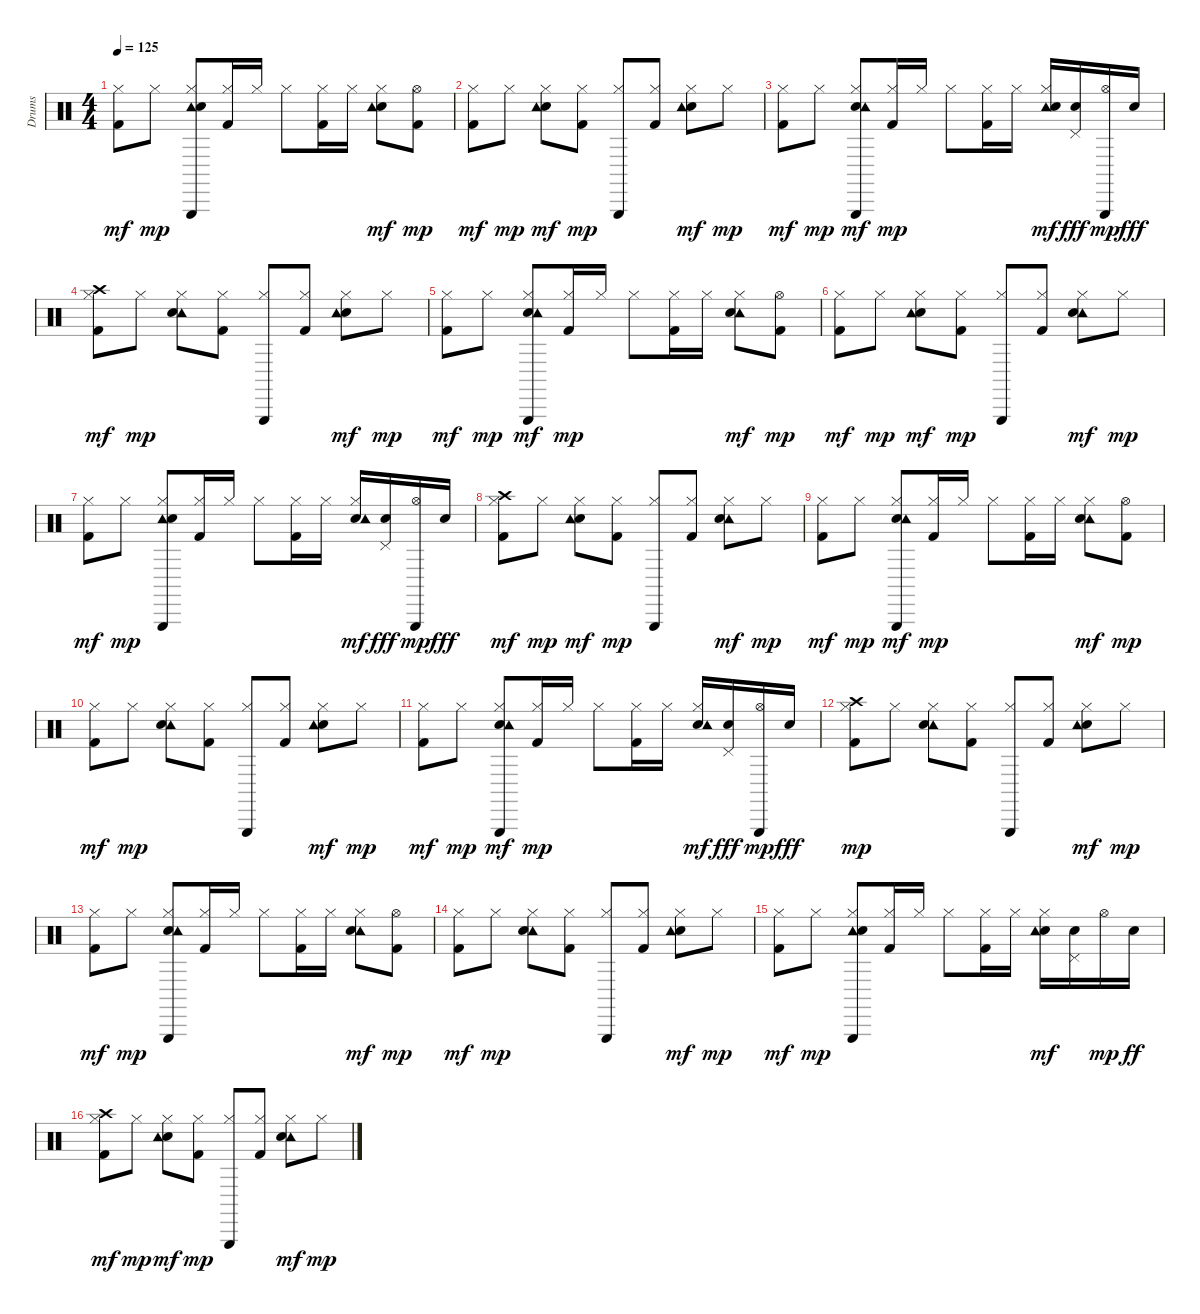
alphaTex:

\track ("Drums" "Drums") {instrument percussion}
\staff {score}
\articulation defaults
\ts (4 4)
\tempo 125
\clef neutral
\ks c
("Hi-Hat (closed)" "Kick (hit) 2").8{dy mf} "Hi-Hat (closed)".8{dy mp} ("Tambourine (hit)" "Electric Snare (hit)" "Hi-Hat (closed)" "Triangle (hit)").8 ("Hi-Hat (closed)" "Kick (hit) 2").16 "Hi-Hat (closed)".16 "Hi-Hat (closed)".8 ("Kick (hit) 2" "Hi-Hat (closed)").16 "Hi-Hat (closed)".16 ("Hi-Hat (closed)" "Electric Snare (hit)" "Tambourine (hit)").8{dy mf} ("Kick (hit) 2" "Hi-Hat (open)").8{dy mp} |
("Kick (hit) 2" "Hi-Hat (closed)").8{dy mf} "Hi-Hat (closed)".8{dy mp} ("Hi-Hat (closed)" "Electric Snare (hit)" "Tambourine (hit)").8{dy mf} ("Kick (hit) 2" "Hi-Hat (closed)").8{dy mp} ("Triangle (hit)" "Hi-Hat (closed)").8 ("Kick (hit) 2" "Hi-Hat (closed)").8 ("Hi-Hat (closed)" "Electric Snare (hit)" "Tambourine (hit)").8{dy mf} "Hi-Hat (closed)".8{dy mp} |
("Kick (hit) 2" "Hi-Hat (closed)").8{dy mf} "Hi-Hat (closed)".8{dy mp} ("Triangle (hit)" "Hi-Hat (closed)" "Electric Snare (hit)" "Tambourine (hit)").8{dy mf} ("Kick (hit) 2" "Hi-Hat (closed)").16{dy mp} "Hi-Hat (closed)".16 "Hi-Hat (closed)".8 ("Hi-Hat (closed)" "Kick (hit) 2").16 "Hi-Hat (closed)".16 ("Tambourine (hit)" "Electric Snare (hit)" "Hi-Hat (closed)").16{dy mf} ("Pedal Hi-Hat (hit)" "Electric Snare (hit)").16{dy fff} ("Triangle (hit)" "Hi-Hat (open)").16{dy mp} "Electric Snare (hit)".16{dy fff} |
("Crash high (hit)" "Kick (hit) 2" "Hi-Hat (closed)").8{dy mf} "Hi-Hat (closed)".8{dy mp} ("Tambourine (hit)" "Electric Snare (hit)" "Hi-Hat (closed)").8 ("Kick (hit) 2" "Hi-Hat (closed)").8 ("Hi-Hat (closed)" "Triangle (hit)").8 ("Hi-Hat (closed)" "Kick (hit) 2").8 ("Hi-Hat (closed)" "Electric Snare (hit)" "Tambourine (hit)").8{dy mf} "Hi-Hat (closed)".8{dy mp} |
("Hi-Hat (closed)" "Kick (hit) 2").8{dy mf} "Hi-Hat (closed)".8{dy mp} ("Triangle (hit)" "Hi-Hat (closed)" "Electric Snare (hit)" "Tambourine (hit)").8{dy mf} ("Hi-Hat (closed)" "Kick (hit) 2").16{dy mp} "Hi-Hat (closed)".16 "Hi-Hat (closed)".8 ("Hi-Hat (closed)" "Kick (hit) 2").16 "Hi-Hat (closed)".16 ("Tambourine (hit)" "Electric Snare (hit)" "Hi-Hat (closed)").8{dy mf} ("Kick (hit) 2" "Hi-Hat (open)").8{dy mp} |
("Hi-Hat (closed)" "Kick (hit) 2").8{dy mf} "Hi-Hat (closed)".8{dy mp} ("Hi-Hat (closed)" "Electric Snare (hit)" "Tambourine (hit)").8{dy mf} ("Hi-Hat (closed)" "Kick (hit) 2").8{dy mp} ("Hi-Hat (closed)" "Triangle (hit)").8 ("Hi-Hat (closed)" "Kick (hit) 2").8 ("Tambourine (hit)" "Electric Snare (hit)" "Hi-Hat (closed)").8{dy mf} "Hi-Hat (closed)".8{dy mp} |
("Hi-Hat (closed)" "Kick (hit) 2").8{dy mf} "Hi-Hat (closed)".8{dy mp} ("Tambourine (hit)" "Electric Snare (hit)" "Hi-Hat (closed)" "Triangle (hit)").8 ("Hi-Hat (closed)" "Kick (hit) 2").16 "Hi-Hat (closed)".16 "Hi-Hat (closed)".8 ("Kick (hit) 2" "Hi-Hat (closed)").16 "Hi-Hat (closed)".16 ("Hi-Hat (closed)" "Electric Snare (hit)" "Tambourine (hit)").16{dy mf} ("Electric Snare (hit)" "Pedal Hi-Hat (hit)").16{dy fff} ("Hi-Hat (open)" "Triangle (hit)").16{dy mp} "Electric Snare (hit)".16{dy fff} |
("Crash high (hit)" "Kick (hit) 2" "Hi-Hat (closed)").8{dy mf} "Hi-Hat (closed)".8{dy mp} ("Hi-Hat (closed)" "Electric Snare (hit)" "Tambourine (hit)").8{dy mf} ("Kick (hit) 2" "Hi-Hat (closed)").8{dy mp} ("Triangle (hit)" "Hi-Hat (closed)").8 ("Kick (hit) 2" "Hi-Hat (closed)").8 ("Tambourine (hit)" "Electric Snare (hit)" "Hi-Hat (closed)").8{dy mf} "Hi-Hat (closed)".8{dy mp} |
("Kick (hit) 2" "Hi-Hat (closed)").8{dy mf} "Hi-Hat (closed)".8{dy mp} ("Triangle (hit)" "Hi-Hat (closed)" "Electric Snare (hit)" "Tambourine (hit)").8{dy mf} ("Kick (hit) 2" "Hi-Hat (closed)").16{dy mp} "Hi-Hat (closed)".16 "Hi-Hat (closed)".8 ("Kick (hit) 2" "Hi-Hat (closed)").16 "Hi-Hat (closed)".16 ("Tambourine (hit)" "Electric Snare (hit)" "Hi-Hat (closed)").8{dy mf} ("Hi-Hat (open)" "Kick (hit) 2").8{dy mp} |
("Kick (hit) 2" "Hi-Hat (closed)").8{dy mf} "Hi-Hat (closed)".8{dy mp} ("Tambourine (hit)" "Electric Snare (hit)" "Hi-Hat (closed)").8 ("Kick (hit) 2" "Hi-Hat (closed)").8 ("Triangle (hit)" "Hi-Hat (closed)").8 ("Hi-Hat (closed)" "Kick (hit) 2").8 ("Hi-Hat (closed)" "Electric Snare (hit)" "Tambourine (hit)").8{dy mf} "Hi-Hat (closed)".8{dy mp} |
("Hi-Hat (closed)" "Kick (hit) 2").8{dy mf} "Hi-Hat (closed)".8{dy mp} ("Triangle (hit)" "Hi-Hat (closed)" "Electric Snare (hit)" "Tambourine (hit)").8{dy mf} ("Hi-Hat (closed)" "Kick (hit) 2").16{dy mp} "Hi-Hat (closed)".16 "Hi-Hat (closed)".8 ("Hi-Hat (closed)" "Kick (hit) 2").16 "Hi-Hat (closed)".16 ("Hi-Hat (closed)" "Electric Snare (hit)" "Tambourine (hit)").16{dy mf} ("Pedal Hi-Hat (hit)" "Electric Snare (hit)").16{dy fff} ("Hi-Hat (open)" "Triangle (hit)").16{dy mp} "Electric Snare (hit)".16{dy fff} |
("Kick (hit) 2" "Hi-Hat (closed)" "Crash high (hit)").8{dy mp} "Hi-Hat (closed)".8 ("Tambourine (hit)" "Electric Snare (hit)" "Hi-Hat (closed)").8 ("Kick (hit) 2" "Hi-Hat (closed)").8 ("Hi-Hat (closed)" "Triangle (hit)").8 ("Kick (hit) 2" "Hi-Hat (closed)").8 ("Hi-Hat (closed)" "Electric Snare (hit)" "Tambourine (hit)").8{dy mf} "Hi-Hat (closed)".8{dy mp} |
("Kick (hit) 2" "Hi-Hat (closed)").8{dy mf} "Hi-Hat (closed)".8{dy mp} ("Hi-Hat (closed)" "Electric Snare (hit)" "Tambourine (hit)" "Triangle (hit)").8 ("Kick (hit) 2" "Hi-Hat (closed)").16 "Hi-Hat (closed)".16 "Hi-Hat (closed)".8 ("Hi-Hat (closed)" "Kick (hit) 2").16 "Hi-Hat (closed)".16 ("Tambourine (hit)" "Electric Snare (hit)" "Hi-Hat (closed)").8{dy mf} ("Hi-Hat (open)" "Kick (hit) 2").8{dy mp} |
("Hi-Hat (closed)" "Kick (hit) 2").8{dy mf} "Hi-Hat (closed)".8{dy mp} ("Tambourine (hit)" "Electric Snare (hit)" "Hi-Hat (closed)").8 ("Kick (hit) 2" "Hi-Hat (closed)").8 ("Triangle (hit)" "Hi-Hat (closed)").8 ("Hi-Hat (closed)" "Kick (hit) 2").8 ("Hi-Hat (closed)" "Electric Snare (hit)" "Tambourine (hit)").8{dy mf} "Hi-Hat (closed)".8{dy mp} |
("Hi-Hat (closed)" "Kick (hit) 2").8{dy mf} "Hi-Hat (closed)".8{dy mp} ("Triangle (hit)" "Tambourine (hit)" "Electric Snare (hit)" "Hi-Hat (closed)").8 ("Hi-Hat (closed)" "Kick (hit) 2").16 "Hi-Hat (closed)".16 "Hi-Hat (closed)".8 ("Hi-Hat (closed)" "Kick (hit) 2").16 "Hi-Hat (closed)".16 ("Electric Snare (hit)" "Tambourine (hit)" "Hi-Hat (closed)").16{dy mf} ("Electric Snare (hit)" "Pedal Hi-Hat (hit)").16 "Hi-Hat (open)".16{dy mp} "Electric Snare (hit)".16{dy ff} |
("Crash high (hit)" "Hi-Hat (closed)" "Kick (hit) 2").8{dy mf} "Hi-Hat (closed)".8{dy mp} ("Hi-Hat (closed)" "Electric Snare (hit)" "Tambourine (hit)").8{dy mf} ("Hi-Hat (closed)" "Kick (hit) 2").8{dy mp} ("Triangle (hit)" "Hi-Hat (closed)").8 ("Kick (hit) 2" "Hi-Hat (closed)").8 ("Tambourine (hit)" "Electric Snare (hit)" "Hi-Hat (closed)").8{dy mf} "Hi-Hat (closed)".8{dy mp}
